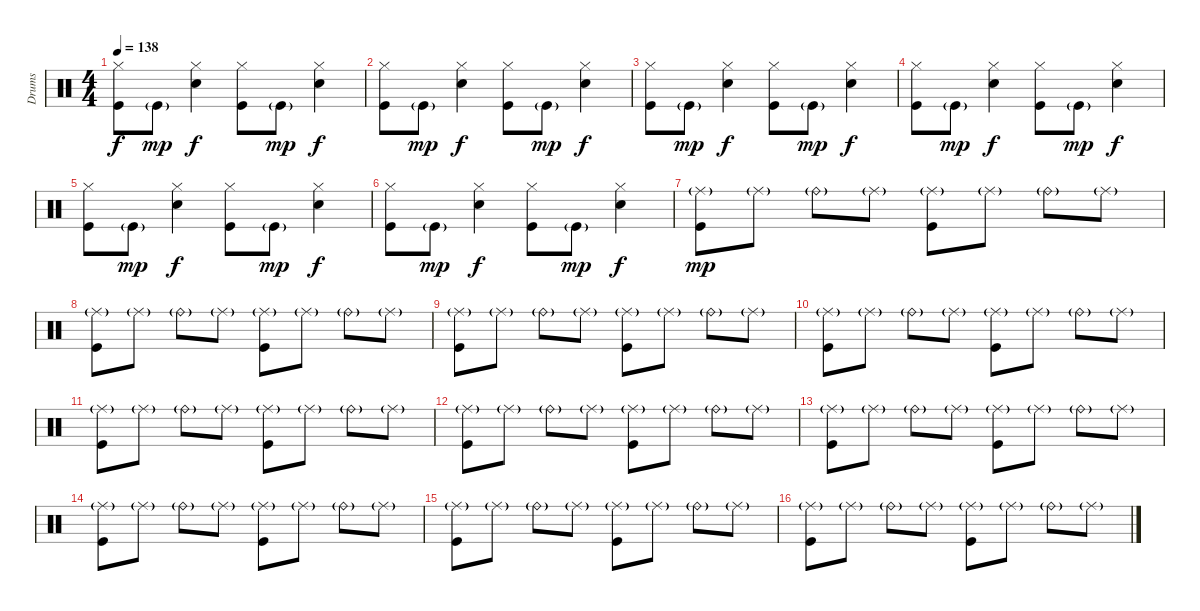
\track ("Drums" "Drums") {instrument percussion}
\staff {score}
\articulation defaults
\ts (4 4)
\tempo 138
\clef neutral
\ks c
("Hi-Hat (closed)" "Kick (hit)").8{dy f} "Kick (hit)"{g}.8{dy mp} ("Hi-Hat (closed)" "Electric Snare (hit)").4{dy f} ("Hi-Hat (closed)" "Kick (hit)").8 "Kick (hit)"{g}.8{dy mp} ("Hi-Hat (closed)" "Electric Snare (hit)").4{dy f} |
("Hi-Hat (closed)" "Kick (hit)").8 "Kick (hit)"{g}.8{dy mp} ("Hi-Hat (closed)" "Electric Snare (hit)").4{dy f} ("Hi-Hat (closed)" "Kick (hit)").8 "Kick (hit)"{g}.8{dy mp} ("Hi-Hat (closed)" "Electric Snare (hit)").4{dy f} |
("Hi-Hat (closed)" "Kick (hit)").8 "Kick (hit)"{g}.8{dy mp} ("Hi-Hat (closed)" "Electric Snare (hit)").4{dy f} ("Hi-Hat (closed)" "Kick (hit)").8 "Kick (hit)"{g}.8{dy mp} ("Hi-Hat (closed)" "Electric Snare (hit)").4{dy f} |
("Hi-Hat (closed)" "Kick (hit)").8 "Kick (hit)"{g}.8{dy mp} ("Hi-Hat (closed)" "Electric Snare (hit)").4{dy f} ("Hi-Hat (closed)" "Kick (hit)").8 "Kick (hit)"{g}.8{dy mp} ("Hi-Hat (closed)" "Electric Snare (hit)").4{dy f} |
("Hi-Hat (closed)" "Kick (hit)").8 "Kick (hit)"{g}.8{dy mp} ("Hi-Hat (closed)" "Electric Snare (hit)").4{dy f} ("Hi-Hat (closed)" "Kick (hit)").8 "Kick (hit)"{g}.8{dy mp} ("Hi-Hat (closed)" "Electric Snare (hit)").4{dy f} |
("Hi-Hat (closed)" "Kick (hit)").8 "Kick (hit)"{g}.8{dy mp} ("Hi-Hat (closed)" "Electric Snare (hit)").4{dy f} ("Hi-Hat (closed)" "Kick (hit)").8 "Kick (hit)"{g}.8{dy mp} ("Hi-Hat (closed)" "Electric Snare (hit)").4{dy f} |
("Ride (middle)"{g} "Kick (hit)").8{dy mp} "Ride (middle)"{g}.8 "Ride (bell)"{g}.8 "Ride (middle)"{g}.8 ("Ride (middle)"{g} "Kick (hit)").8 "Ride (middle)"{g}.8 "Ride (bell)"{g}.8 "Ride (middle)"{g}.8 |
("Ride (middle)"{g} "Kick (hit)").8 "Ride (middle)"{g}.8 "Ride (bell)"{g}.8 "Ride (middle)"{g}.8 ("Ride (middle)"{g} "Kick (hit)").8 "Ride (middle)"{g}.8 "Ride (bell)"{g}.8 "Ride (middle)"{g}.8 |
("Ride (middle)"{g} "Kick (hit)").8 "Ride (middle)"{g}.8 "Ride (bell)"{g}.8 "Ride (middle)"{g}.8 ("Ride (middle)"{g} "Kick (hit)").8 "Ride (middle)"{g}.8 "Ride (bell)"{g}.8 "Ride (middle)"{g}.8 |
("Ride (middle)"{g} "Kick (hit)").8 "Ride (middle)"{g}.8 "Ride (bell)"{g}.8 "Ride (middle)"{g}.8 ("Ride (middle)"{g} "Kick (hit)").8 "Ride (middle)"{g}.8 "Ride (bell)"{g}.8 "Ride (middle)"{g}.8 |
("Ride (middle)"{g} "Kick (hit)").8 "Ride (middle)"{g}.8 "Ride (bell)"{g}.8 "Ride (middle)"{g}.8 ("Ride (middle)"{g} "Kick (hit)").8 "Ride (middle)"{g}.8 "Ride (bell)"{g}.8 "Ride (middle)"{g}.8 |
("Ride (middle)"{g} "Kick (hit)").8 "Ride (middle)"{g}.8 "Ride (bell)"{g}.8 "Ride (middle)"{g}.8 ("Ride (middle)"{g} "Kick (hit)").8 "Ride (middle)"{g}.8 "Ride (bell)"{g}.8 "Ride (middle)"{g}.8 |
("Ride (middle)"{g} "Kick (hit)").8 "Ride (middle)"{g}.8 "Ride (bell)"{g}.8 "Ride (middle)"{g}.8 ("Ride (middle)"{g} "Kick (hit)").8 "Ride (middle)"{g}.8 "Ride (bell)"{g}.8 "Ride (middle)"{g}.8 |
("Ride (middle)"{g} "Kick (hit)").8 "Ride (middle)"{g}.8 "Ride (bell)"{g}.8 "Ride (middle)"{g}.8 ("Ride (middle)"{g} "Kick (hit)").8 "Ride (middle)"{g}.8 "Ride (bell)"{g}.8 "Ride (middle)"{g}.8 |
("Ride (middle)"{g} "Kick (hit)").8 "Ride (middle)"{g}.8 "Ride (bell)"{g}.8 "Ride (middle)"{g}.8 ("Ride (middle)"{g} "Kick (hit)").8 "Ride (middle)"{g}.8 "Ride (bell)"{g}.8 "Ride (middle)"{g}.8 |
("Ride (middle)"{g} "Kick (hit)").8 "Ride (middle)"{g}.8 "Ride (bell)"{g}.8 "Ride (middle)"{g}.8 ("Ride (middle)"{g} "Kick (hit)").8 "Ride (middle)"{g}.8 "Ride (bell)"{g}.8 "Ride (middle)"{g}.8
